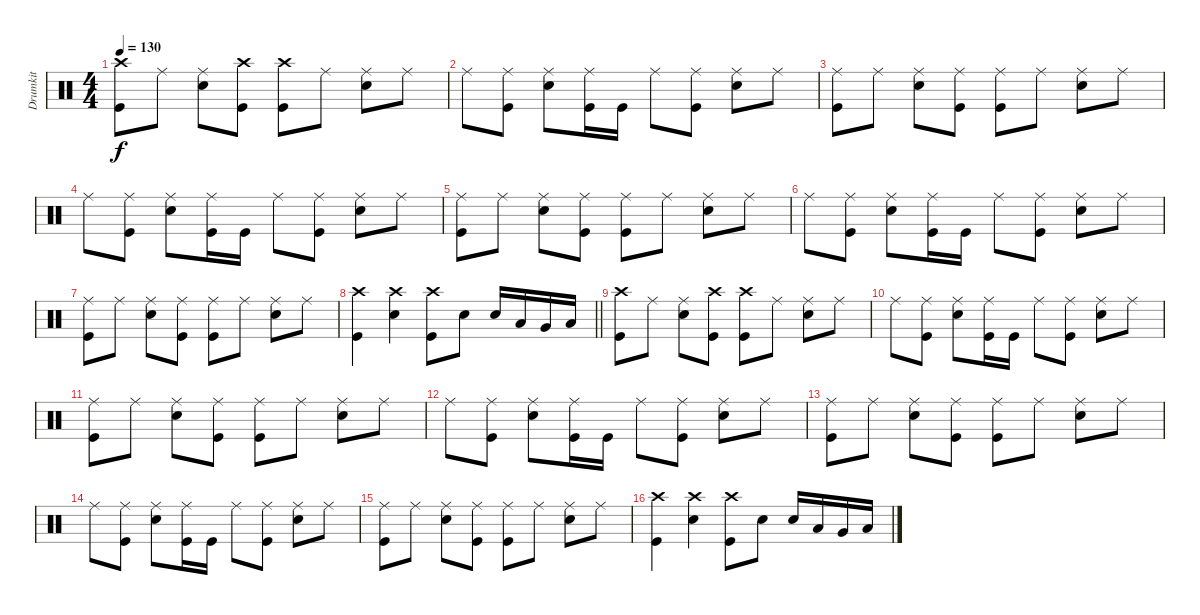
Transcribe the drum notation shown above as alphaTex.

\track ("Drumkit" "Drumkit") {instrument percussion}
\staff {score}
\articulation defaults
\ts (4 4)
\tempo 130
\clef neutral
\ks c
("Kick (hit)" "Crash high (hit)").8{dy f} "Ride (middle)".8 ("Snare (hit) 2" "Ride (middle)").8 ("Kick (hit)" "Crash high (hit)").8 ("Kick (hit)" "Crash high (hit)").8 "Ride (middle)".8 ("Snare (hit) 2" "Ride (middle)").8 "Ride (middle)".8 |
"Ride (middle)".8 ("Kick (hit)" "Ride (middle)").8 ("Snare (hit) 2" "Ride (middle)").8 ("Kick (hit)" "Ride (middle)").16 "Kick (hit)".16 "Ride (middle)".8 ("Kick (hit)" "Ride (middle)").8 ("Snare (hit) 2" "Ride (middle)").8 "Ride (middle)".8 |
("Kick (hit)" "Ride (middle)").8 "Ride (middle)".8 ("Snare (hit) 2" "Ride (middle)").8 ("Kick (hit)" "Ride (middle)").8 ("Kick (hit)" "Ride (middle)").8 "Ride (middle)".8 ("Snare (hit) 2" "Ride (middle)").8 "Ride (middle)".8 |
"Ride (middle)".8 ("Kick (hit)" "Ride (middle)").8 ("Snare (hit) 2" "Ride (middle)").8 ("Kick (hit)" "Ride (middle)").16 "Kick (hit)".16 "Ride (middle)".8 ("Kick (hit)" "Ride (middle)").8 ("Snare (hit) 2" "Ride (middle)").8 "Ride (middle)".8 |
("Kick (hit)" "Ride (middle)").8 "Ride (middle)".8 ("Snare (hit) 2" "Ride (middle)").8 ("Kick (hit)" "Ride (middle)").8 ("Kick (hit)" "Ride (middle)").8 "Ride (middle)".8 ("Snare (hit) 2" "Ride (middle)").8 "Ride (middle)".8 |
"Ride (middle)".8 ("Kick (hit)" "Ride (middle)").8 ("Snare (hit) 2" "Ride (middle)").8 ("Kick (hit)" "Ride (middle)").16 "Kick (hit)".16 "Ride (middle)".8 ("Kick (hit)" "Ride (middle)").8 ("Snare (hit) 2" "Ride (middle)").8 "Ride (middle)".8 |
("Kick (hit)" "Ride (middle)").8 "Ride (middle)".8 ("Snare (hit) 2" "Ride (middle)").8 ("Kick (hit)" "Ride (middle)").8 ("Kick (hit)" "Ride (middle)").8 "Ride (middle)".8 ("Snare (hit) 2" "Ride (middle)").8 "Ride (middle)".8 |
\barLineRight lightlight
("Crash high (hit)" "Kick (hit)").4 ("Crash high (hit)" "Snare (hit) 2").4 ("Crash high (hit)" "Kick (hit)").8 "Snare (hit) 2".8 "Snare (hit) 2".16 "Low Tom (hit)".16 "Very Low Tom (hit)".16 "Low Floor Tom (hit)".16 |
("Kick (hit)" "Crash high (hit)").8 "Ride (middle)".8 ("Snare (hit) 2" "Ride (middle)").8 ("Kick (hit)" "Crash high (hit)").8 ("Kick (hit)" "Crash high (hit)").8 "Ride (middle)".8 ("Snare (hit) 2" "Ride (middle)").8 "Ride (middle)".8 |
"Ride (middle)".8 ("Kick (hit)" "Ride (middle)").8 ("Snare (hit) 2" "Ride (middle)").8 ("Kick (hit)" "Ride (middle)").16 "Kick (hit)".16 "Ride (middle)".8 ("Kick (hit)" "Ride (middle)").8 ("Snare (hit) 2" "Ride (middle)").8 "Ride (middle)".8 |
("Kick (hit)" "Ride (middle)").8 "Ride (middle)".8 ("Snare (hit) 2" "Ride (middle)").8 ("Kick (hit)" "Ride (middle)").8 ("Kick (hit)" "Ride (middle)").8 "Ride (middle)".8 ("Snare (hit) 2" "Ride (middle)").8 "Ride (middle)".8 |
"Ride (middle)".8 ("Kick (hit)" "Ride (middle)").8 ("Snare (hit) 2" "Ride (middle)").8 ("Kick (hit)" "Ride (middle)").16 "Kick (hit)".16 "Ride (middle)".8 ("Kick (hit)" "Ride (middle)").8 ("Snare (hit) 2" "Ride (middle)").8 "Ride (middle)".8 |
("Kick (hit)" "Ride (middle)").8 "Ride (middle)".8 ("Snare (hit) 2" "Ride (middle)").8 ("Kick (hit)" "Ride (middle)").8 ("Kick (hit)" "Ride (middle)").8 "Ride (middle)".8 ("Snare (hit) 2" "Ride (middle)").8 "Ride (middle)".8 |
"Ride (middle)".8 ("Kick (hit)" "Ride (middle)").8 ("Snare (hit) 2" "Ride (middle)").8 ("Kick (hit)" "Ride (middle)").16 "Kick (hit)".16 "Ride (middle)".8 ("Kick (hit)" "Ride (middle)").8 ("Snare (hit) 2" "Ride (middle)").8 "Ride (middle)".8 |
("Kick (hit)" "Ride (middle)").8 "Ride (middle)".8 ("Snare (hit) 2" "Ride (middle)").8 ("Kick (hit)" "Ride (middle)").8 ("Kick (hit)" "Ride (middle)").8 "Ride (middle)".8 ("Snare (hit) 2" "Ride (middle)").8 "Ride (middle)".8 |
("Crash high (hit)" "Kick (hit)").4 ("Crash high (hit)" "Snare (hit) 2").4 ("Crash high (hit)" "Kick (hit)").8 "Snare (hit) 2".8 "Snare (hit) 2".16 "Low Tom (hit)".16 "Very Low Tom (hit)".16 "Low Floor Tom (hit)".16
